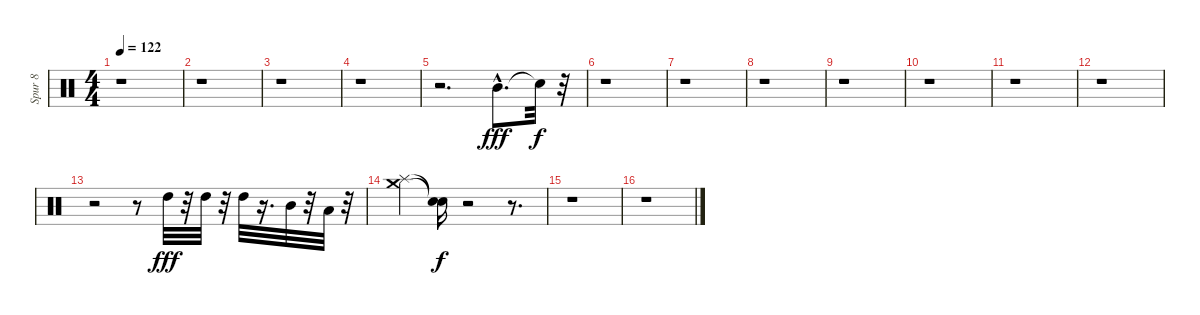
\track ("Spur 8" "Spur 8") {instrument percussion}
\staff {score}
\articulation defaults
\ts (4 4)
\tempo 122
\clef neutral
\ks c
r.1{dy fff} |
r.1 |
r.1 |
r.1 |
r.2{d} "Mid Tom (hit)"{hac}.8{d} "Snare (hit)"{t}.32{dy f} r.32 |
r.1 |
r.1 |
r.1 |
r.1 |
r.1 |
r.1 |
r.1 |
r.2 r.8 "High Tom (hit)".32{dy fff} r.32 "High Tom (hit)".32 r.32 "High Tom (hit)".32 r.16{d} "Mid Tom (hit)".32 r.32 "Low Tom (hit)".32 r.32 |
("Splash (hit)" "Crash medium (hit)").4 ("Snare (hit)"{t} "Snare (hit)"{t}).16{dy f} r.2 r.8{d} |
r.1 |
r.1
